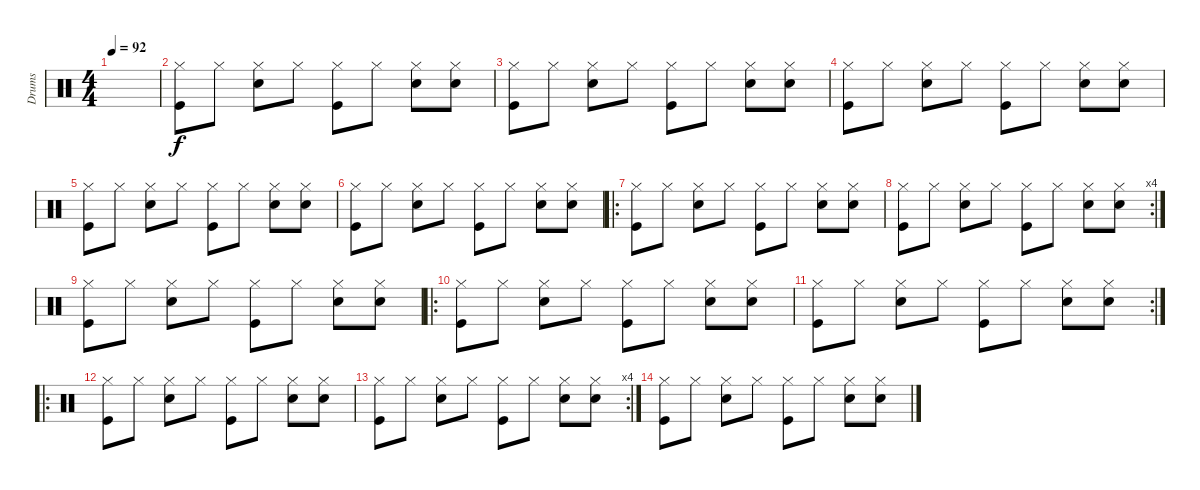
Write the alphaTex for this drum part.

\track ("Drums" "Drums") {instrument percussion}
\staff {score}
\articulation defaults
\ts (4 4)
\tempo 92
\clef neutral
\ks c
|
("Hi-Hat (closed)" "Kick (hit)").8 "Hi-Hat (closed)".8 ("Hi-Hat (closed)" "Snare (hit) 2").8 "Hi-Hat (closed)".8 ("Hi-Hat (closed)" "Kick (hit)").8 "Hi-Hat (closed)".8 ("Hi-Hat (closed)" "Snare (hit) 2").8 ("Hi-Hat (closed)" "Snare (hit) 2").8 |
("Hi-Hat (closed)" "Kick (hit)").8 "Hi-Hat (closed)".8 ("Hi-Hat (closed)" "Snare (hit) 2").8 "Hi-Hat (closed)".8 ("Hi-Hat (closed)" "Kick (hit)").8 "Hi-Hat (closed)".8 ("Hi-Hat (closed)" "Snare (hit) 2").8 ("Hi-Hat (closed)" "Snare (hit) 2").8 |
("Hi-Hat (closed)" "Kick (hit)").8 "Hi-Hat (closed)".8 ("Hi-Hat (closed)" "Snare (hit) 2").8 "Hi-Hat (closed)".8 ("Hi-Hat (closed)" "Kick (hit)").8 "Hi-Hat (closed)".8 ("Hi-Hat (closed)" "Snare (hit) 2").8 ("Hi-Hat (closed)" "Snare (hit) 2").8 |
("Hi-Hat (closed)" "Kick (hit)").8 "Hi-Hat (closed)".8 ("Hi-Hat (closed)" "Snare (hit) 2").8 "Hi-Hat (closed)".8 ("Hi-Hat (closed)" "Kick (hit)").8 "Hi-Hat (closed)".8 ("Hi-Hat (closed)" "Snare (hit) 2").8 ("Hi-Hat (closed)" "Snare (hit) 2").8 |
("Hi-Hat (closed)" "Kick (hit)").8 "Hi-Hat (closed)".8 ("Hi-Hat (closed)" "Snare (hit) 2").8 "Hi-Hat (closed)".8 ("Hi-Hat (closed)" "Kick (hit)").8 "Hi-Hat (closed)".8 ("Hi-Hat (closed)" "Snare (hit) 2").8 ("Hi-Hat (closed)" "Snare (hit) 2").8 |
\ro
("Hi-Hat (closed)" "Kick (hit)").8 "Hi-Hat (closed)".8 ("Hi-Hat (closed)" "Snare (hit) 2").8 "Hi-Hat (closed)".8 ("Hi-Hat (closed)" "Kick (hit)").8 "Hi-Hat (closed)".8 ("Hi-Hat (closed)" "Snare (hit) 2").8 ("Hi-Hat (closed)" "Snare (hit) 2").8 |
\rc 4
("Hi-Hat (closed)" "Kick (hit)").8 "Hi-Hat (closed)".8 ("Hi-Hat (closed)" "Snare (hit) 2").8 "Hi-Hat (closed)".8 ("Hi-Hat (closed)" "Kick (hit)").8 "Hi-Hat (closed)".8 ("Hi-Hat (closed)" "Snare (hit) 2").8 ("Hi-Hat (closed)" "Snare (hit) 2").8 |
("Hi-Hat (closed)" "Kick (hit)").8 "Hi-Hat (closed)".8 ("Hi-Hat (closed)" "Snare (hit) 2").8 "Hi-Hat (closed)".8 ("Hi-Hat (closed)" "Kick (hit)").8 "Hi-Hat (closed)".8 ("Hi-Hat (closed)" "Snare (hit) 2").8 ("Hi-Hat (closed)" "Snare (hit) 2").8 |
\ro
("Hi-Hat (closed)" "Kick (hit)").8 "Hi-Hat (closed)".8 ("Hi-Hat (closed)" "Snare (hit) 2").8 "Hi-Hat (closed)".8 ("Hi-Hat (closed)" "Kick (hit)").8 "Hi-Hat (closed)".8 ("Hi-Hat (closed)" "Snare (hit) 2").8 ("Hi-Hat (closed)" "Snare (hit) 2").8 |
\rc 2
("Hi-Hat (closed)" "Kick (hit)").8 "Hi-Hat (closed)".8 ("Hi-Hat (closed)" "Snare (hit) 2").8 "Hi-Hat (closed)".8 ("Hi-Hat (closed)" "Kick (hit)").8 "Hi-Hat (closed)".8 ("Hi-Hat (closed)" "Snare (hit) 2").8 ("Hi-Hat (closed)" "Snare (hit) 2").8 |
\ro
("Hi-Hat (closed)" "Kick (hit)").8 "Hi-Hat (closed)".8 ("Hi-Hat (closed)" "Snare (hit) 2").8 "Hi-Hat (closed)".8 ("Hi-Hat (closed)" "Kick (hit)").8 "Hi-Hat (closed)".8 ("Hi-Hat (closed)" "Snare (hit) 2").8 ("Hi-Hat (closed)" "Snare (hit) 2").8 |
\rc 4
("Hi-Hat (closed)" "Kick (hit)").8 "Hi-Hat (closed)".8 ("Hi-Hat (closed)" "Snare (hit) 2").8 "Hi-Hat (closed)".8 ("Hi-Hat (closed)" "Kick (hit)").8 "Hi-Hat (closed)".8 ("Hi-Hat (closed)" "Snare (hit) 2").8 ("Hi-Hat (closed)" "Snare (hit) 2").8 |
("Hi-Hat (closed)" "Kick (hit)").8 "Hi-Hat (closed)".8 ("Hi-Hat (closed)" "Snare (hit) 2").8 "Hi-Hat (closed)".8 ("Hi-Hat (closed)" "Kick (hit)").8 "Hi-Hat (closed)".8 ("Hi-Hat (closed)" "Snare (hit) 2").8 ("Hi-Hat (closed)" "Snare (hit) 2").8
